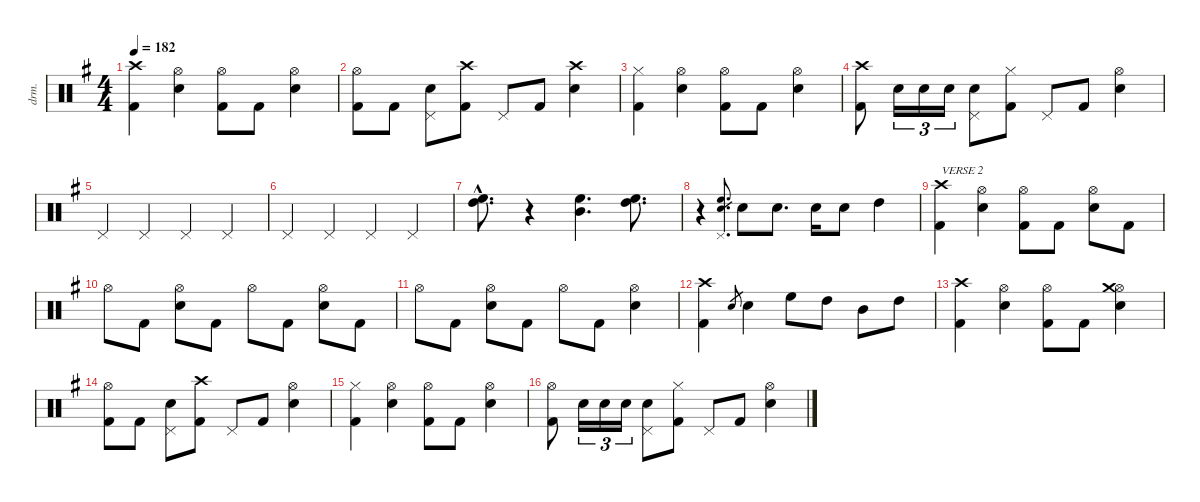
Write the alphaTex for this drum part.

\defaultSystemsLayout 4
\hideDynamics
\bracketExtendMode nobrackets
\otherSystemsTrackNameOrientation horizontal
\track ("Drum" "drm.") {defaultSystemsLayout 4 instrument percussion}
\staff {score}
\articulation defaults
\ts (4 4)
\tempo 182
\clef neutral
\ks g
("Kick (hit) 2"{acc forcenatural} "Crash high (hit)"{acc forcenatural}).4{dy f beam Down} ("Snare (hit) 2"{acc forcenatural} "Hi-Hat (open)"{acc forcenatural}).4{beam Down} ("Kick (hit) 2"{acc forcenatural} "Hi-Hat (open)"{acc forcenatural}).8{beam Down} "Kick (hit) 2"{acc forcenatural}.8{beam Down} ("Snare (hit) 2"{acc forcenatural} "Hi-Hat (open)"{acc forcenatural}).4{beam Down} |
("Kick (hit) 2"{acc forcenatural} "Hi-Hat (open)"{acc forcenatural}).8{beam Down} "Kick (hit) 2"{acc forcenatural}.8{beam Down} ("Snare (hit) 2"{acc forcenatural} "Pedal Hi-Hat (hit)"{acc forcenatural}).8{beam Down} ("Kick (hit) 2"{acc forcenatural} "Crash high (hit)"{acc forcenatural}).8{beam Down} "Pedal Hi-Hat (hit)"{acc forcenatural}.8{beam Up} "Kick (hit) 2"{acc forcenatural}.8{beam Up} ("Snare (hit) 2"{acc forcenatural} "Crash high (hit)"{acc forcenatural}).4{beam Down} |
("Hi-Hat (closed)"{acc forcenatural} "Kick (hit) 2"{acc forcenatural}).4{beam Down} ("Snare (hit) 2"{acc forcenatural} "Hi-Hat (open)"{acc forcenatural}).4{beam Down} ("Kick (hit) 2"{acc forcenatural} "Hi-Hat (open)"{acc forcenatural}).8{beam Down} "Kick (hit) 2"{acc forcenatural}.8{beam Down} ("Snare (hit) 2"{acc forcenatural} "Hi-Hat (open)"{acc forcenatural}).4{beam Down} |
("Kick (hit) 2"{acc forcenatural} "Crash high (hit)"{acc forcenatural}).8{beam Down} "Snare (hit) 2"{acc forcenatural}.16{tu (3 2) beam Down} "Snare (hit) 2"{acc forcenatural}.16{tu (3 2) beam Down} "Snare (hit) 2"{acc forcenatural}.16{tu (3 2) beam Down} ("Snare (hit) 2"{acc forcenatural} "Pedal Hi-Hat (hit)"{acc forcenatural}).8{beam Down} ("Kick (hit) 2"{acc forcenatural} "Hi-Hat (closed)"{acc forcenatural}).8{beam Down} "Pedal Hi-Hat (hit)"{acc forcenatural}.8{beam Up} "Kick (hit) 2"{acc forcenatural}.8{beam Up} ("Snare (hit) 2"{acc forcenatural} "Hi-Hat (open)"{acc forcenatural}).4{beam Down} |
"Pedal Hi-Hat (hit)"{acc forcenatural}.4{beam Up} "Pedal Hi-Hat (hit)"{acc forcenatural}.4{beam Up} "Pedal Hi-Hat (hit)"{acc forcenatural}.4{beam Up} "Pedal Hi-Hat (hit)"{acc forcenatural}.4{beam Up} |
"Pedal Hi-Hat (hit)"{acc forcenatural}.4{beam Up} "Pedal Hi-Hat (hit)"{acc forcenatural}.4{beam Up} "Pedal Hi-Hat (hit)"{acc forcenatural}.4{beam Up} "Pedal Hi-Hat (hit)"{acc forcenatural}.4{beam Up} |
("High Floor Tom (hit)"{hac acc forcenatural} "High Tom (hit)"{acc forcenatural}).8{d beam Down} r.4{beam Down} ("High Floor Tom (hit)"{acc forcenatural} "Mid Tom (hit)"{acc forcenatural}).4{d beam Down} ("High Floor Tom (hit)"{acc forcenatural} "High Tom (hit)"{acc forcenatural}).8{d beam Down} |
r.4{beam Down} ("Pedal Hi-Hat (hit)"{acc forcenatural} "Snare (hit) 2"{acc forcenatural} "High Floor Tom (hit)"{acc forcenatural}).8{d gr beam Up} "Snare (hit) 2"{acc forcenatural}.8{beam Down} "Snare (hit) 2"{acc forcenatural}.8{d beam Down} "Snare (hit) 2"{acc forcenatural}.16{beam Down} "Snare (hit) 2"{acc forcenatural}.8{beam Down} "High Tom (hit)"{acc forcenatural}.4{beam Down} |
("Kick (hit) 2"{acc forcenatural} "Crash high (hit)"{acc forcenatural}).4{txt "VERSE 2" beam Down} ("Snare (hit) 2"{acc forcenatural} "Hi-Hat (open)"{acc forcenatural}).4{beam Down} ("Kick (hit) 2"{acc forcenatural} "Hi-Hat (open)"{acc forcenatural}).8{beam Down} "Kick (hit) 2"{acc forcenatural}.8{beam Down} ("Snare (hit) 2"{acc forcenatural} "Hi-Hat (open)"{acc forcenatural}).8{beam Down} "Kick (hit) 2"{acc forcenatural}.8{beam Down} |
"Hi-Hat (open)"{acc forcenatural}.8{beam Down} "Kick (hit) 2"{acc forcenatural}.8{beam Down} ("Snare (hit) 2"{acc forcenatural} "Hi-Hat (open)"{acc forcenatural}).8{beam Down} "Kick (hit) 2"{acc forcenatural}.8{beam Down} "Hi-Hat (open)"{acc forcenatural}.8{beam Down} "Kick (hit) 2"{acc forcenatural}.8{beam Down} ("Snare (hit) 2"{acc forcenatural} "Hi-Hat (open)"{acc forcenatural}).8{beam Down} "Kick (hit) 2"{acc forcenatural}.8{beam Down} |
"Hi-Hat (open)"{acc forcenatural}.8{beam Down} "Kick (hit) 2"{acc forcenatural}.8{beam Down} ("Snare (hit) 2"{acc forcenatural} "Hi-Hat (open)"{acc forcenatural}).8{beam Down} "Kick (hit) 2"{acc forcenatural}.8{beam Down} "Hi-Hat (open)"{acc forcenatural}.8{beam Down} "Kick (hit) 2"{acc forcenatural}.8{beam Down} ("Snare (hit) 2"{acc forcenatural} "Hi-Hat (open)"{acc forcenatural}).4{beam Down} |
("Kick (hit) 2"{acc forcenatural} "Crash high (hit)"{acc forcenatural}).4{beam Down} "Snare (hit) 2"{acc forcenatural}.8{gr beam Up} "Snare (hit) 2"{acc forcenatural}.4{beam Down} "High Floor Tom (hit)"{acc forcenatural}.8{beam Down} "High Tom (hit)"{acc forcenatural}.8{beam Down} "Mid Tom (hit)"{acc forcenatural}.8{beam Down} "High Tom (hit)"{acc forcenatural}.8{beam Down} |
("Kick (hit) 2"{acc forcenatural} "Crash high (hit)"{acc forcenatural}).4{beam Down} ("Snare (hit) 2"{acc forcenatural} "Hi-Hat (open)"{acc forcenatural}).4{beam Down} ("Kick (hit) 2"{acc forcenatural} "Hi-Hat (open)"{acc forcenatural}).8{beam Down} "Kick (hit) 2"{acc forcenatural}.8{beam Down} ("Snare (hit) 2"{acc forcenatural} "Hi-Hat (open)"{acc forcenatural} "Crash medium (hit)"{acc forcenatural}).4{beam Down} |
("Kick (hit) 2"{acc forcenatural} "Hi-Hat (open)"{acc forcenatural}).8{beam Down} "Kick (hit) 2"{acc forcenatural}.8{beam Down} ("Snare (hit) 2"{acc forcenatural} "Pedal Hi-Hat (hit)"{acc forcenatural}).8{beam Down} ("Kick (hit) 2"{acc forcenatural} "Crash high (hit)"{acc forcenatural}).8{beam Down} "Pedal Hi-Hat (hit)"{acc forcenatural}.8{beam Up} "Kick (hit) 2"{acc forcenatural}.8{beam Up} ("Snare (hit) 2"{acc forcenatural} "Hi-Hat (open)"{acc forcenatural}).4{beam Down} |
("Kick (hit) 2"{acc forcenatural} "Hi-Hat (closed)"{acc forcenatural}).4{beam Down} ("Snare (hit) 2"{acc forcenatural} "Hi-Hat (open)"{acc forcenatural}).4{beam Down} ("Kick (hit) 2"{acc forcenatural} "Hi-Hat (open)"{acc forcenatural}).8{beam Down} "Kick (hit) 2"{acc forcenatural}.8{beam Down} ("Snare (hit) 2"{acc forcenatural} "Hi-Hat (open)"{acc forcenatural}).4{beam Down} |
("Kick (hit) 2"{acc forcenatural} "Hi-Hat (open)"{acc forcenatural}).8{beam Down} "Snare (hit) 2"{acc forcenatural}.16{tu (3 2) beam Down} "Snare (hit) 2"{acc forcenatural}.16{tu (3 2) beam Down} "Snare (hit) 2"{acc forcenatural}.16{tu (3 2) beam Down} ("Snare (hit) 2"{acc forcenatural} "Pedal Hi-Hat (hit)"{acc forcenatural}).8{beam Down} ("Kick (hit) 2"{acc forcenatural} "Hi-Hat (closed)"{acc forcenatural}).8{beam Down} "Pedal Hi-Hat (hit)"{acc forcenatural}.8{beam Up} "Kick (hit) 2"{acc forcenatural}.8{beam Up} ("Snare (hit) 2"{acc forcenatural} "Hi-Hat (open)"{acc forcenatural}).4{beam Down}
